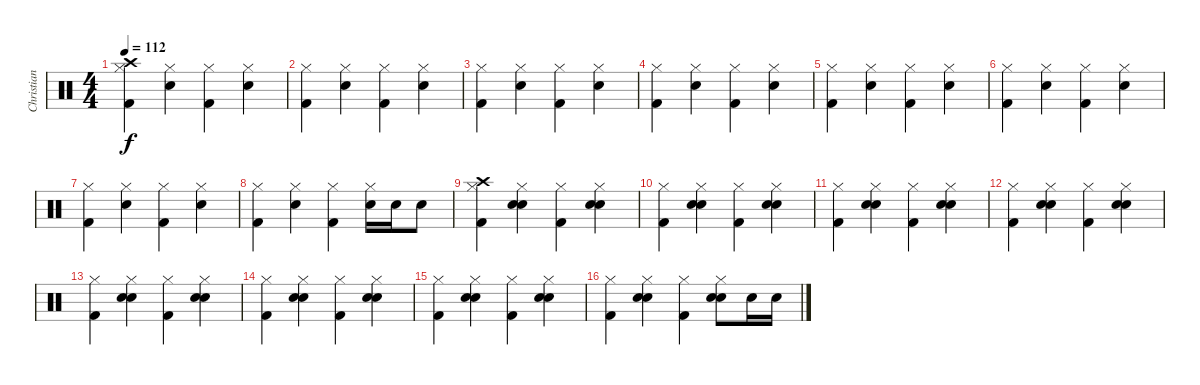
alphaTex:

\track ("Christian Paredes" "Christian ") {instrument percussion}
\staff {score}
\articulation defaults
\ts (4 4)
\tempo 112
\clef neutral
\ks c
("Hi-Hat (closed)" "Crash high (hit)" "Kick (hit) 2").4{dy f volume 11} ("Hi-Hat (closed)" "Electric Snare (hit)").4 ("Hi-Hat (closed)" "Kick (hit) 2").4 ("Hi-Hat (closed)" "Electric Snare (hit)").4 |
("Hi-Hat (closed)" "Kick (hit) 2").4 ("Hi-Hat (closed)" "Electric Snare (hit)").4 ("Hi-Hat (closed)" "Kick (hit) 2").4 ("Hi-Hat (closed)" "Electric Snare (hit)").4 |
("Hi-Hat (closed)" "Kick (hit) 2").4 ("Hi-Hat (closed)" "Electric Snare (hit)").4 ("Hi-Hat (closed)" "Kick (hit) 2").4 ("Hi-Hat (closed)" "Electric Snare (hit)").4 |
("Hi-Hat (closed)" "Kick (hit) 2").4 ("Hi-Hat (closed)" "Electric Snare (hit)").4 ("Hi-Hat (closed)" "Kick (hit) 2").4 ("Hi-Hat (closed)" "Electric Snare (hit)").4 |
("Hi-Hat (closed)" "Kick (hit) 2").4 ("Hi-Hat (closed)" "Electric Snare (hit)").4 ("Hi-Hat (closed)" "Kick (hit) 2").4 ("Hi-Hat (closed)" "Electric Snare (hit)").4 |
("Hi-Hat (closed)" "Kick (hit) 2").4 ("Hi-Hat (closed)" "Electric Snare (hit)").4 ("Hi-Hat (closed)" "Kick (hit) 2").4 ("Hi-Hat (closed)" "Electric Snare (hit)").4 |
("Hi-Hat (closed)" "Kick (hit) 2").4 ("Hi-Hat (closed)" "Electric Snare (hit)").4 ("Hi-Hat (closed)" "Kick (hit) 2").4 ("Hi-Hat (closed)" "Electric Snare (hit)").4 |
("Hi-Hat (closed)" "Kick (hit) 2").4 ("Hi-Hat (closed)" "Electric Snare (hit)").4 ("Hi-Hat (closed)" "Kick (hit) 2").4 ("Hi-Hat (closed)" "Electric Snare (hit)").16 "Electric Snare (hit)".16 "Electric Snare (hit)".8 |
("Hi-Hat (closed)" "Crash high (hit)" "Kick (hit) 2").4{volume 13} ("Hi-Hat (closed)" "Electric Snare (hit)" "Hand Clap (hit)").4 ("Hi-Hat (closed)" "Kick (hit) 2").4 ("Hi-Hat (closed)" "Electric Snare (hit)" "Hand Clap (hit)").4 |
("Hi-Hat (closed)" "Kick (hit) 2").4 ("Hi-Hat (closed)" "Electric Snare (hit)" "Hand Clap (hit)").4 ("Hi-Hat (closed)" "Kick (hit) 2").4 ("Hi-Hat (closed)" "Electric Snare (hit)" "Hand Clap (hit)").4 |
("Hi-Hat (closed)" "Kick (hit) 2").4 ("Hi-Hat (closed)" "Electric Snare (hit)" "Hand Clap (hit)").4 ("Hi-Hat (closed)" "Kick (hit) 2").4 ("Hi-Hat (closed)" "Electric Snare (hit)" "Hand Clap (hit)").4 |
("Hi-Hat (closed)" "Kick (hit) 2").4 ("Hi-Hat (closed)" "Electric Snare (hit)" "Hand Clap (hit)").4 ("Hi-Hat (closed)" "Kick (hit) 2").4 ("Hi-Hat (closed)" "Electric Snare (hit)" "Hand Clap (hit)").4 |
("Hi-Hat (closed)" "Kick (hit) 2").4 ("Hi-Hat (closed)" "Electric Snare (hit)" "Hand Clap (hit)").4 ("Hi-Hat (closed)" "Kick (hit) 2").4 ("Hi-Hat (closed)" "Electric Snare (hit)" "Hand Clap (hit)").4 |
("Hi-Hat (closed)" "Kick (hit) 2").4 ("Hi-Hat (closed)" "Electric Snare (hit)" "Hand Clap (hit)").4 ("Hi-Hat (closed)" "Kick (hit) 2").4 ("Hi-Hat (closed)" "Electric Snare (hit)" "Hand Clap (hit)").4 |
("Hi-Hat (closed)" "Kick (hit) 2").4 ("Hi-Hat (closed)" "Electric Snare (hit)" "Hand Clap (hit)").4 ("Hi-Hat (closed)" "Kick (hit) 2").4 ("Hi-Hat (closed)" "Electric Snare (hit)" "Hand Clap (hit)").4 |
("Hi-Hat (closed)" "Kick (hit) 2").4 ("Hi-Hat (closed)" "Electric Snare (hit)" "Hand Clap (hit)").4 ("Hi-Hat (closed)" "Kick (hit) 2").4 ("Hi-Hat (closed)" "Electric Snare (hit)" "Hand Clap (hit)").8 "Electric Snare (hit)".16 "Electric Snare (hit)".16
